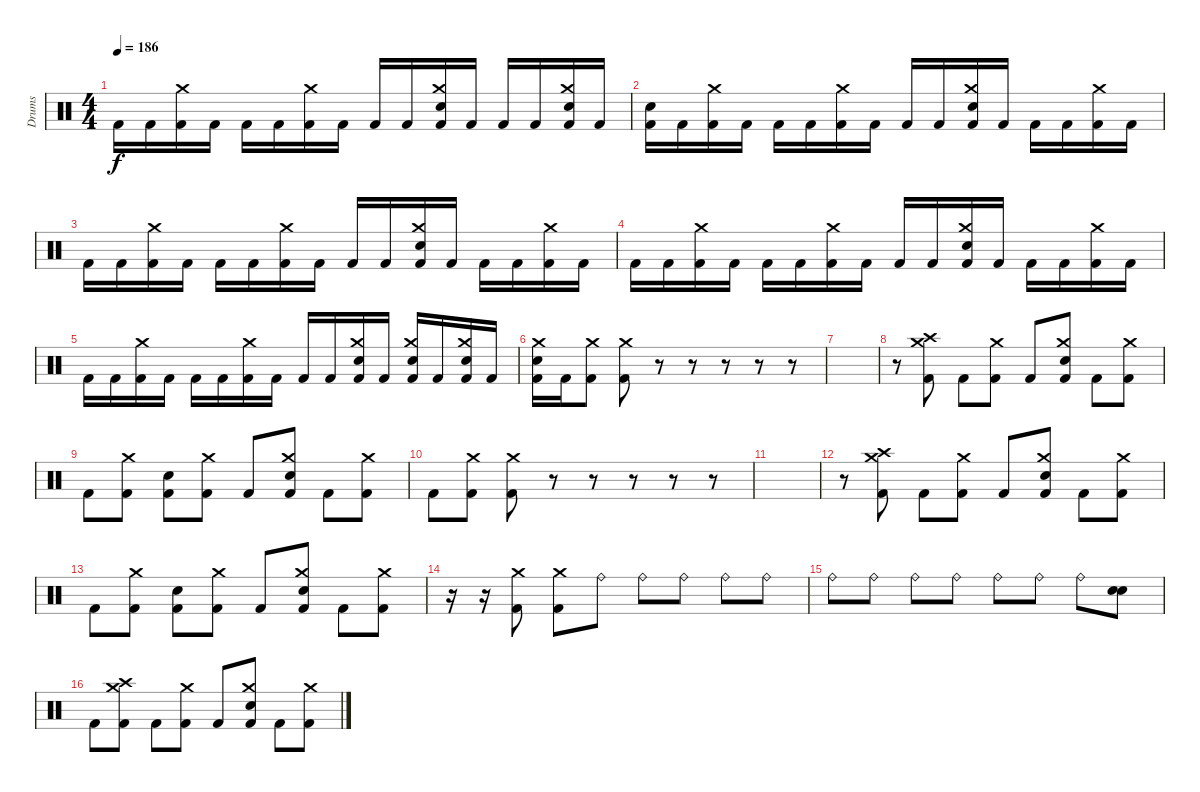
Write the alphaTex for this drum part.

\track ("Drums" "Drums") {instrument percussion bank 177}
\staff {score}
\articulation defaults
\ts (4 4)
\tempo 186
\clef neutral
\ks c "Kick (hit) 2".16{dy f} "Kick (hit) 2".16
("Crash medium (hit)" "Kick (hit) 2").16 "Kick (hit) 2".16 "Kick (hit) 2".16 "Kick (hit) 2".16 ("Crash medium (hit)" "Kick (hit) 2").16 "Kick (hit) 2".16 "Kick (hit) 2".16 "Kick (hit) 2".16 ("Crash medium (hit)" "Snare (hit) 2" "Kick (hit) 2").16 "Kick (hit) 2".16 "Kick (hit) 2".16 "Kick (hit) 2".16 ("Crash medium (hit)" "Snare (hit) 2" "Kick (hit) 2").16 "Kick (hit) 2".16 |
("Snare (hit) 2" "Kick (hit) 2").16 "Kick (hit) 2".16 ("Crash medium (hit)" "Kick (hit) 2").16 "Kick (hit) 2".16 "Kick (hit) 2".16 "Kick (hit) 2".16 ("Crash medium (hit)" "Kick (hit) 2").16 "Kick (hit) 2".16 "Kick (hit) 2".16 "Kick (hit) 2".16 ("Crash medium (hit)" "Snare (hit) 2" "Kick (hit) 2").16 "Kick (hit) 2".16 "Kick (hit) 2".16 "Kick (hit) 2".16 ("Crash medium (hit)" "Kick (hit) 2").16 "Kick (hit) 2".16 |
"Kick (hit) 2".16 "Kick (hit) 2".16 ("Crash medium (hit)" "Kick (hit) 2").16 "Kick (hit) 2".16 "Kick (hit) 2".16 "Kick (hit) 2".16 ("Crash medium (hit)" "Kick (hit) 2").16 "Kick (hit) 2".16 "Kick (hit) 2".16 "Kick (hit) 2".16 ("Crash medium (hit)" "Snare (hit) 2" "Kick (hit) 2").16 "Kick (hit) 2".16 "Kick (hit) 2".16 "Kick (hit) 2".16 ("Crash medium (hit)" "Kick (hit) 2").16 "Kick (hit) 2".16 |
"Kick (hit) 2".16 "Kick (hit) 2".16 ("Crash medium (hit)" "Kick (hit) 2").16 "Kick (hit) 2".16 "Kick (hit) 2".16 "Kick (hit) 2".16 ("Crash medium (hit)" "Kick (hit) 2").16 "Kick (hit) 2".16 "Kick (hit) 2".16 "Kick (hit) 2".16 ("Crash medium (hit)" "Snare (hit) 2" "Kick (hit) 2").16 "Kick (hit) 2".16 "Kick (hit) 2".16 "Kick (hit) 2".16 ("Crash medium (hit)" "Kick (hit) 2").16 "Kick (hit) 2".16 |
"Kick (hit) 2".16 "Kick (hit) 2".16 ("Crash medium (hit)" "Kick (hit) 2").16 "Kick (hit) 2".16 "Kick (hit) 2".16 "Kick (hit) 2".16 ("Crash medium (hit)" "Kick (hit) 2").16 "Kick (hit) 2".16 "Kick (hit) 2".16 "Kick (hit) 2".16 ("Crash medium (hit)" "Snare (hit) 2" "Kick (hit) 2").16 "Kick (hit) 2".16 ("Crash medium (hit)" "Snare (hit) 2" "Kick (hit) 2").16 "Kick (hit) 2".16 ("Crash medium (hit)" "Snare (hit) 2" "Kick (hit) 2").16 "Kick (hit) 2".16 |
("Crash medium (hit)" "Snare (hit) 2" "Kick (hit) 2").16 "Kick (hit) 2".16 ("Crash medium (hit)" "Kick (hit) 2").8 ("Crash medium (hit)" "Kick (hit) 2").8 r.8 r.8 r.8 r.8 r.8 |
|
r.8 ("Crash high (hit)" "Crash medium (hit)" "Kick (hit) 2").8 "Kick (hit) 2".8 ("Crash medium (hit)" "Kick (hit) 2").8 "Kick (hit) 2".8 ("Crash medium (hit)" "Snare (hit) 2" "Kick (hit) 2").8 "Kick (hit) 2".8 ("Crash medium (hit)" "Kick (hit) 2").8 |
"Kick (hit) 2".8 ("Crash medium (hit)" "Kick (hit) 2").8 ("Snare (hit) 2" "Kick (hit) 2").8 ("Crash medium (hit)" "Kick (hit) 2").8 "Kick (hit) 2".8 ("Crash medium (hit)" "Snare (hit) 2" "Kick (hit) 2").8 "Kick (hit) 2".8 ("Crash medium (hit)" "Kick (hit) 2").8 |
"Kick (hit) 2".8 ("Crash medium (hit)" "Kick (hit) 2").8 ("Crash medium (hit)" "Kick (hit) 2").8 r.8 r.8 r.8 r.8 r.8 |
|
r.8 ("Crash high (hit)" "Crash medium (hit)" "Kick (hit) 2").8 "Kick (hit) 2".8 ("Crash medium (hit)" "Kick (hit) 2").8 "Kick (hit) 2".8 ("Crash medium (hit)" "Snare (hit) 2" "Kick (hit) 2").8 "Kick (hit) 2".8 ("Crash medium (hit)" "Kick (hit) 2").8 |
"Kick (hit) 2".8 ("Crash medium (hit)" "Kick (hit) 2").8 ("Snare (hit) 2" "Kick (hit) 2").8 ("Crash medium (hit)" "Kick (hit) 2").8 "Kick (hit) 2".8 ("Crash medium (hit)" "Snare (hit) 2" "Kick (hit) 2").8 "Kick (hit) 2".8 ("Crash medium (hit)" "Kick (hit) 2").8 |
r.16 r.16 ("Crash medium (hit)" "Kick (hit) 2").8 ("Crash medium (hit)" "Kick (hit) 2").8 "Ride (bell)".8 "Ride (bell)".8 "Ride (bell)".8 "Ride (bell)".8 "Ride (bell)".8 |
"Ride (bell)".8 "Ride (bell)".8 "Ride (bell)".8 "Ride (bell)".8 "Ride (bell)".8 "Ride (bell)".8 "Ride (bell)".8 ("Snare (hit) 2" "Snare (hit) 2").8 |
"Kick (hit) 2".8 ("Crash high (hit)" "Crash medium (hit)" "Kick (hit) 2").8 "Kick (hit) 2".8 ("Crash medium (hit)" "Kick (hit) 2").8 "Kick (hit) 2".8 ("Crash medium (hit)" "Snare (hit) 2" "Kick (hit) 2").8 "Kick (hit) 2".8 ("Crash medium (hit)" "Kick (hit) 2").8
